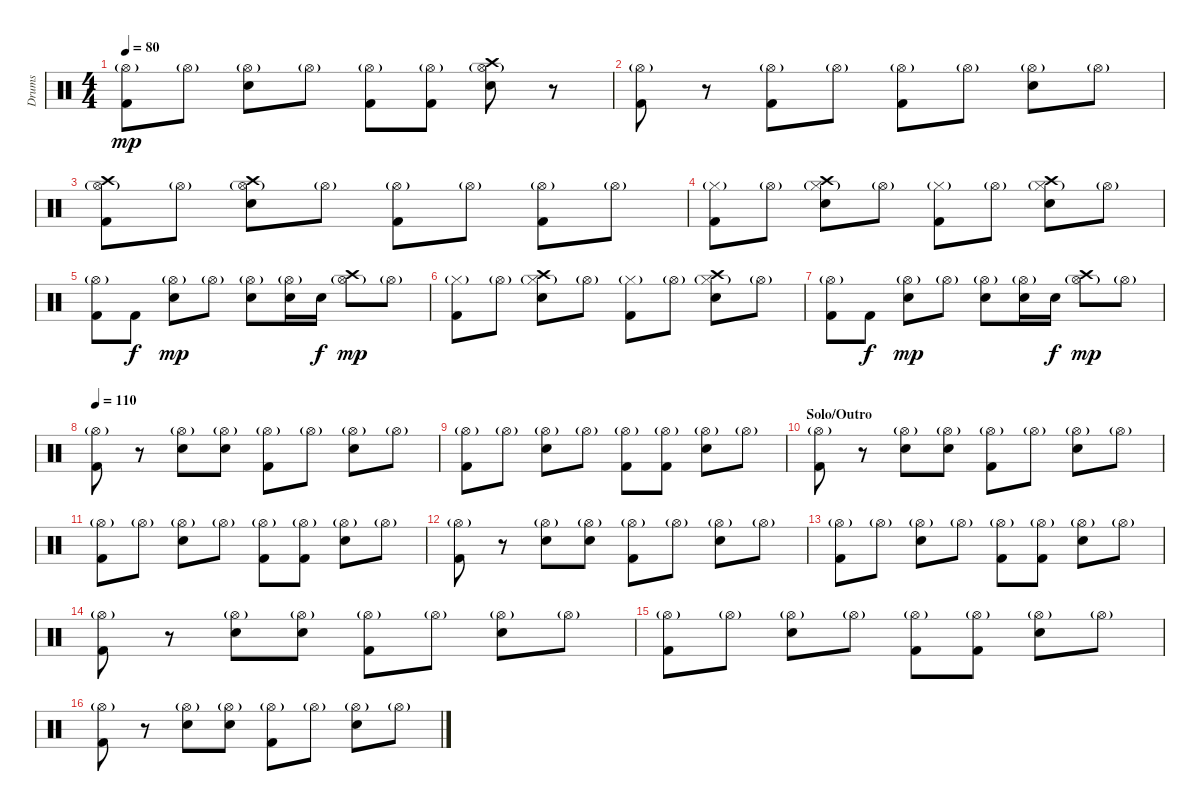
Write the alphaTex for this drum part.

\track ("Drums" "Drums") {instrument percussion}
\staff {score}
\articulation defaults
\ts (4 4)
\tempo 80
\clef neutral
\ks c
("Hi-Hat (open)"{g} "Kick (hit) 2").8{dy mp} "Hi-Hat (open)"{g}.8 ("Hi-Hat (open)"{g} "Snare (hit) 2").8 "Hi-Hat (open)"{g}.8 ("Hi-Hat (open)"{g} "Kick (hit) 2").8 ("Hi-Hat (open)"{g} "Kick (hit) 2").8 ("Hi-Hat (open)"{g} "Crash high (hit)" "Snare (hit) 2").8 r.8 |
("Hi-Hat (open)"{g} "Kick (hit) 2").8 r.8 ("Hi-Hat (open)"{g} "Kick (hit) 2").8 "Hi-Hat (open)"{g}.8 ("Hi-Hat (open)"{g} "Kick (hit) 2").8 "Hi-Hat (open)"{g}.8 ("Hi-Hat (open)"{g} "Snare (hit) 2").8 "Hi-Hat (open)"{g}.8 |
("Hi-Hat (open)"{g} "Crash high (hit)" "Kick (hit) 2").8 "Hi-Hat (open)"{g}.8 ("Hi-Hat (open)"{g} "Crash high (hit)" "Snare (hit) 2").8 "Hi-Hat (open)"{g}.8 ("Hi-Hat (open)"{g} "Kick (hit) 2").8 "Hi-Hat (open)"{g}.8 ("Hi-Hat (open)"{g} "Kick (hit) 2").8 "Hi-Hat (open)"{g}.8 |
("Hi-Hat (closed)"{g} "Kick (hit) 2").8 "Hi-Hat (open)"{g}.8 ("Hi-Hat (closed)"{g} "Crash high (hit)" "Snare (hit) 2").8 "Hi-Hat (open)"{g}.8 ("Hi-Hat (closed)"{g} "Kick (hit) 2").8 "Hi-Hat (open)"{g}.8 ("Hi-Hat (closed)"{g} "Crash high (hit)" "Snare (hit) 2").8 "Hi-Hat (open)"{g}.8 |
("Hi-Hat (open)"{g} "Kick (hit) 2").8 "Kick (hit) 2".8{dy f} ("Hi-Hat (open)"{g} "Snare (hit) 2").8{dy mp} "Hi-Hat (open)"{g}.8 ("Hi-Hat (open)"{g} "Snare (hit) 2").8 ("Hi-Hat (open)"{g} "Snare (hit) 2").16 "Snare (hit) 2".16{dy f} ("Hi-Hat (open)"{g} "Crash high (hit)").8{dy mp} "Hi-Hat (open)"{g}.8 |
("Hi-Hat (closed)"{g} "Kick (hit) 2").8 "Hi-Hat (open)"{g}.8 ("Hi-Hat (closed)"{g} "Crash high (hit)" "Snare (hit) 2").8 "Hi-Hat (open)"{g}.8 ("Hi-Hat (closed)"{g} "Kick (hit) 2").8 "Hi-Hat (open)"{g}.8 ("Hi-Hat (closed)"{g} "Crash high (hit)" "Snare (hit) 2").8 "Hi-Hat (open)"{g}.8 |
("Hi-Hat (open)"{g} "Kick (hit) 2").8 "Kick (hit) 2".8{dy f} ("Hi-Hat (open)"{g} "Snare (hit) 2").8{dy mp} "Hi-Hat (open)"{g}.8 ("Hi-Hat (open)"{g} "Snare (hit) 2").8 ("Hi-Hat (open)"{g} "Snare (hit) 2").16 "Snare (hit) 2".16{dy f} ("Hi-Hat (open)"{g} "Crash high (hit)").8{dy mp} "Hi-Hat (open)"{g}.8 |
\tempo 110
("Hi-Hat (open)"{g} "Kick (hit) 2").8 r.8 ("Hi-Hat (open)"{g} "Snare (hit) 2").8 ("Hi-Hat (open)"{g} "Snare (hit) 2").8 ("Hi-Hat (open)"{g} "Kick (hit) 2").8 "Hi-Hat (open)"{g}.8 ("Hi-Hat (open)"{g} "Snare (hit) 2").8 "Hi-Hat (open)"{g}.8 |
("Hi-Hat (open)"{g} "Kick (hit) 2").8 "Hi-Hat (open)"{g}.8 ("Hi-Hat (open)"{g} "Snare (hit) 2").8 "Hi-Hat (open)"{g}.8 ("Hi-Hat (open)"{g} "Kick (hit) 2").8 ("Hi-Hat (open)"{g} "Kick (hit) 2").8 ("Hi-Hat (open)"{g} "Snare (hit) 2").8 "Hi-Hat (open)"{g}.8 |
\section ("" "Solo/Outro")
("Hi-Hat (open)"{g} "Kick (hit) 2").8 r.8 ("Hi-Hat (open)"{g} "Snare (hit) 2").8 ("Hi-Hat (open)"{g} "Snare (hit) 2").8 ("Hi-Hat (open)"{g} "Kick (hit) 2").8 "Hi-Hat (open)"{g}.8 ("Hi-Hat (open)"{g} "Snare (hit) 2").8 "Hi-Hat (open)"{g}.8 |
("Hi-Hat (open)"{g} "Kick (hit) 2").8 "Hi-Hat (open)"{g}.8 ("Hi-Hat (open)"{g} "Snare (hit) 2").8 "Hi-Hat (open)"{g}.8 ("Hi-Hat (open)"{g} "Kick (hit) 2").8 ("Hi-Hat (open)"{g} "Kick (hit) 2").8 ("Hi-Hat (open)"{g} "Snare (hit) 2").8 "Hi-Hat (open)"{g}.8 |
("Hi-Hat (open)"{g} "Kick (hit) 2").8 r.8 ("Hi-Hat (open)"{g} "Snare (hit) 2").8 ("Hi-Hat (open)"{g} "Snare (hit) 2").8 ("Hi-Hat (open)"{g} "Kick (hit) 2").8 "Hi-Hat (open)"{g}.8 ("Hi-Hat (open)"{g} "Snare (hit) 2").8 "Hi-Hat (open)"{g}.8 |
("Hi-Hat (open)"{g} "Kick (hit) 2").8 "Hi-Hat (open)"{g}.8 ("Hi-Hat (open)"{g} "Snare (hit) 2").8 "Hi-Hat (open)"{g}.8 ("Hi-Hat (open)"{g} "Kick (hit) 2").8 ("Hi-Hat (open)"{g} "Kick (hit) 2").8 ("Hi-Hat (open)"{g} "Snare (hit) 2").8 "Hi-Hat (open)"{g}.8 |
("Hi-Hat (open)"{g} "Kick (hit) 2").8 r.8 ("Hi-Hat (open)"{g} "Snare (hit) 2").8 ("Hi-Hat (open)"{g} "Snare (hit) 2").8 ("Hi-Hat (open)"{g} "Kick (hit) 2").8 "Hi-Hat (open)"{g}.8 ("Hi-Hat (open)"{g} "Snare (hit) 2").8 "Hi-Hat (open)"{g}.8 |
("Hi-Hat (open)"{g} "Kick (hit) 2").8 "Hi-Hat (open)"{g}.8 ("Hi-Hat (open)"{g} "Snare (hit) 2").8 "Hi-Hat (open)"{g}.8 ("Hi-Hat (open)"{g} "Kick (hit) 2").8 ("Hi-Hat (open)"{g} "Kick (hit) 2").8 ("Hi-Hat (open)"{g} "Snare (hit) 2").8 "Hi-Hat (open)"{g}.8 |
("Hi-Hat (open)"{g} "Kick (hit) 2").8 r.8 ("Hi-Hat (open)"{g} "Snare (hit) 2").8 ("Hi-Hat (open)"{g} "Snare (hit) 2").8 ("Hi-Hat (open)"{g} "Kick (hit) 2").8 "Hi-Hat (open)"{g}.8 ("Hi-Hat (open)"{g} "Snare (hit) 2").8 "Hi-Hat (open)"{g}.8
